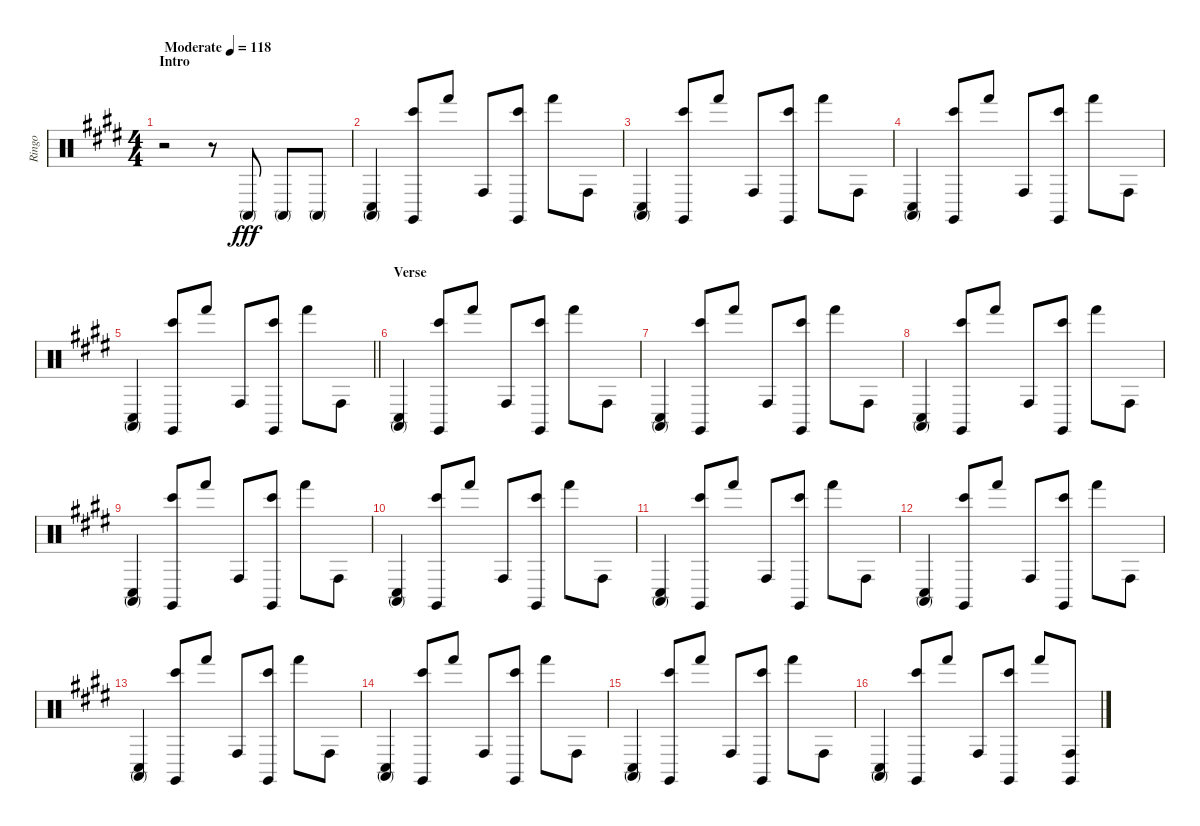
\track ("Ringo" "Ringo") {instrument percussion}
\staff {score}
\articulation defaults
\ts (4 4)
\section ("" "Intro")
\tempo (118 "Moderate")
\clef neutral
\ks e
r.2{dy fff} r.8 "Conga high (mute)".8 "Conga high (mute)".8 "Conga high (mute)".8 |
("Conga low (hit)" "Conga high (mute)").4 ("Claves (hit)" "Bongo High (hit)").8 "Hand (hit)".8 "Conga high (hit)".8 ("Claves (hit)" "Bongo High (hit)").8 "Hand (hit)".8 "Conga high (hit)".8 |
("Conga low (hit)" "Conga high (mute)").4 ("Claves (hit)" "Bongo High (hit)").8 "Hand (hit)".8 "Conga high (hit)".8 ("Claves (hit)" "Bongo High (hit)").8 "Hand (hit)".8 "Conga high (hit)".8 |
("Conga low (hit)" "Conga high (mute)").4 ("Claves (hit)" "Bongo High (hit)").8 "Hand (hit)".8 "Conga high (hit)".8 ("Claves (hit)" "Bongo High (hit)").8 "Hand (hit)".8 "Conga high (hit)".8 |
\barLineRight lightlight
("Conga low (hit)" "Conga high (mute)").4 ("Claves (hit)" "Bongo High (hit)").8 "Hand (hit)".8 "Conga high (hit)".8 ("Claves (hit)" "Bongo High (hit)").8 "Hand (hit)".8 "Conga high (hit)".8 |
\section ("" "Verse")
("Conga low (hit)" "Conga high (mute)").4 ("Claves (hit)" "Bongo High (hit)").8 "Hand (hit)".8 "Conga high (hit)".8 ("Claves (hit)" "Bongo High (hit)").8 "Hand (hit)".8 "Conga high (hit)".8 |
("Conga low (hit)" "Conga high (mute)").4 ("Claves (hit)" "Bongo High (hit)").8 "Hand (hit)".8 "Conga high (hit)".8 ("Claves (hit)" "Bongo High (hit)").8 "Hand (hit)".8 "Conga high (hit)".8 |
("Conga low (hit)" "Conga high (mute)").4 ("Claves (hit)" "Bongo High (hit)").8 "Hand (hit)".8 "Conga high (hit)".8 ("Claves (hit)" "Bongo High (hit)").8 "Hand (hit)".8 "Conga high (hit)".8 |
("Conga low (hit)" "Conga high (mute)").4 ("Claves (hit)" "Bongo High (hit)").8 "Hand (hit)".8 "Conga high (hit)".8 ("Claves (hit)" "Bongo High (hit)").8 "Hand (hit)".8 "Conga high (hit)".8 |
("Conga low (hit)" "Conga high (mute)").4 ("Claves (hit)" "Bongo High (hit)").8 "Hand (hit)".8 "Conga high (hit)".8 ("Claves (hit)" "Bongo High (hit)").8 "Hand (hit)".8 "Conga high (hit)".8 |
("Conga low (hit)" "Conga high (mute)").4 ("Claves (hit)" "Bongo High (hit)").8 "Hand (hit)".8 "Conga high (hit)".8 ("Claves (hit)" "Bongo High (hit)").8 "Hand (hit)".8 "Conga high (hit)".8 |
("Conga low (hit)" "Conga high (mute)").4 ("Claves (hit)" "Bongo High (hit)").8 "Hand (hit)".8 "Conga high (hit)".8 ("Claves (hit)" "Bongo High (hit)").8 "Hand (hit)".8 "Conga high (hit)".8 |
("Conga low (hit)" "Conga high (mute)").4 ("Claves (hit)" "Bongo High (hit)").8 "Hand (hit)".8 "Conga high (hit)".8 ("Claves (hit)" "Bongo High (hit)").8 "Hand (hit)".8 "Conga high (hit)".8 |
("Conga low (hit)" "Conga high (mute)").4 ("Claves (hit)" "Bongo High (hit)").8 "Hand (hit)".8 "Conga high (hit)".8 ("Claves (hit)" "Bongo High (hit)").8 "Hand (hit)".8 "Conga high (hit)".8 |
("Conga low (hit)" "Conga high (mute)").4 ("Claves (hit)" "Bongo High (hit)").8 "Hand (hit)".8 "Conga high (hit)".8 ("Claves (hit)" "Bongo High (hit)").8 "Hand (hit)".8 "Conga high (hit)".8 |
("Conga low (hit)" "Conga high (mute)").4 ("Claves (hit)" "Bongo High (hit)").8 "Hand (hit)".8 "Conga high (hit)".8 ("Claves (hit)" "Bongo High (hit)").8 "Hand (hit)".8 ("Claves (hit)" "Conga high (hit)").8
